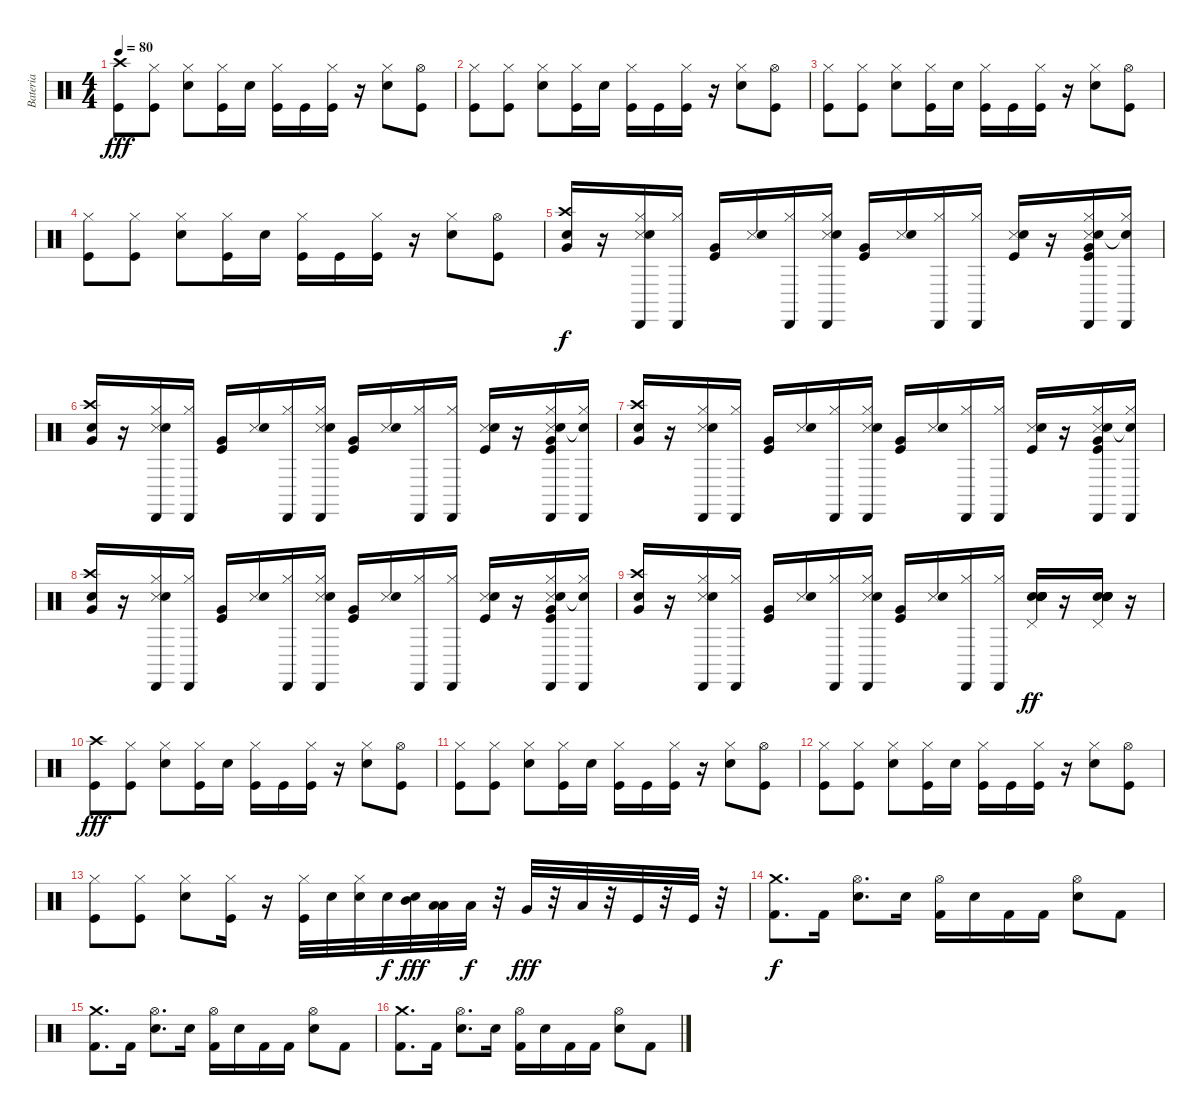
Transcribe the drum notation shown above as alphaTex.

\track ("Bateria" "Bateria") {instrument percussion}
\staff {score}
\articulation defaults
\ts (4 4)
\tempo 80
\clef neutral
\ks c
("Kick (hit)" "Crash high (hit)").8{dy fff} ("Kick (hit)" "Hi-Hat (closed)").8 ("Snare (hit) 2" "Hi-Hat (closed)").8 ("Kick (hit)" "Hi-Hat (closed)").16 "Snare (hit) 2".16 ("Kick (hit)" "Hi-Hat (closed)").16 "Kick (hit)".16 ("Kick (hit)" "Hi-Hat (closed)").16 r.16 ("Snare (hit) 2" "Hi-Hat (closed)").8 ("Kick (hit)" "Hi-Hat (open)").8 |
("Kick (hit)" "Hi-Hat (closed)").8 ("Kick (hit)" "Hi-Hat (closed)").8 ("Snare (hit) 2" "Hi-Hat (closed)").8 ("Kick (hit)" "Hi-Hat (closed)").16 "Snare (hit) 2".16 ("Kick (hit)" "Hi-Hat (closed)").16 "Kick (hit)".16 ("Kick (hit)" "Hi-Hat (closed)").16 r.16 ("Snare (hit) 2" "Hi-Hat (closed)").8 ("Kick (hit)" "Hi-Hat (open)").8 |
("Kick (hit)" "Hi-Hat (closed)").8 ("Kick (hit)" "Hi-Hat (closed)").8 ("Snare (hit) 2" "Hi-Hat (closed)").8 ("Kick (hit)" "Hi-Hat (closed)").16 "Snare (hit) 2".16 ("Kick (hit)" "Hi-Hat (closed)").16 "Kick (hit)".16 ("Kick (hit)" "Hi-Hat (closed)").16 r.16 ("Snare (hit) 2" "Hi-Hat (closed)").8 ("Kick (hit)" "Hi-Hat (open)").8 |
("Kick (hit)" "Hi-Hat (closed)").8 ("Kick (hit)" "Hi-Hat (closed)").8 ("Snare (hit) 2" "Hi-Hat (closed)").8 ("Kick (hit)" "Hi-Hat (closed)").16 "Snare (hit) 2".16 ("Kick (hit)" "Hi-Hat (closed)").16 "Kick (hit)".16 ("Kick (hit)" "Hi-Hat (closed)").16 r.16 ("Snare (hit) 2" "Hi-Hat (closed)").8 ("Kick (hit)" "Hi-Hat (open)").8 |
("Crash high (hit)" "Snare (hit) 2" "Very Low Tom (hit)").16{dy f} r.16 ("Snare (side stick) 3" "Electric Snare (hit)" "Hi-Hat (closed)" "Cabasa (hit)").16 ("Hi-Hat (closed)" "Cabasa (hit)").16 ("Kick (hit)" "Very Low Tom (hit)").16 ("Snare (side stick) 3" "Electric Snare (hit)").16 ("Hi-Hat (closed)" "Cabasa (hit)").16 ("Snare (side stick) 3" "Electric Snare (hit)" "Hi-Hat (closed)" "Cabasa (hit)").16 ("Kick (hit)" "Very Low Tom (hit)").16 ("Snare (side stick) 3" "Electric Snare (hit)").16 ("Hi-Hat (closed)" "Cabasa (hit)").16 ("Hi-Hat (closed)" "Cabasa (hit)").16 ("Kick (hit)" "Snare (side stick) 3" "Electric Snare (hit)").16 r.16 ("Snare (side stick) 3" "Kick (hit)" "Electric Snare (hit)" "Very Low Tom (hit)" "Hi-Hat (closed)" "Cabasa (hit)").16 ("Electric Snare (hit)"{t} "Hi-Hat (closed)" "Cabasa (hit)").16 |
("Crash high (hit)" "Snare (hit) 2" "Very Low Tom (hit)").16 r.16 ("Snare (side stick) 3" "Electric Snare (hit)" "Hi-Hat (closed)" "Cabasa (hit)").16 ("Hi-Hat (closed)" "Cabasa (hit)").16 ("Kick (hit)" "Very Low Tom (hit)").16 ("Snare (side stick) 3" "Electric Snare (hit)").16 ("Hi-Hat (closed)" "Cabasa (hit)").16 ("Snare (side stick) 3" "Electric Snare (hit)" "Hi-Hat (closed)" "Cabasa (hit)").16 ("Kick (hit)" "Very Low Tom (hit)").16 ("Snare (side stick) 3" "Electric Snare (hit)").16 ("Hi-Hat (closed)" "Cabasa (hit)").16 ("Hi-Hat (closed)" "Cabasa (hit)").16 ("Kick (hit)" "Snare (side stick) 3" "Electric Snare (hit)").16 r.16 ("Snare (side stick) 3" "Kick (hit)" "Electric Snare (hit)" "Very Low Tom (hit)" "Hi-Hat (closed)" "Cabasa (hit)").16 ("Electric Snare (hit)"{t} "Hi-Hat (closed)" "Cabasa (hit)").16 |
("Crash high (hit)" "Snare (hit) 2" "Very Low Tom (hit)").16 r.16 ("Snare (side stick) 3" "Electric Snare (hit)" "Hi-Hat (closed)" "Cabasa (hit)").16 ("Hi-Hat (closed)" "Cabasa (hit)").16 ("Kick (hit)" "Very Low Tom (hit)").16 ("Snare (side stick) 3" "Electric Snare (hit)").16 ("Hi-Hat (closed)" "Cabasa (hit)").16 ("Snare (side stick) 3" "Electric Snare (hit)" "Hi-Hat (closed)" "Cabasa (hit)").16 ("Kick (hit)" "Very Low Tom (hit)").16 ("Snare (side stick) 3" "Electric Snare (hit)").16 ("Hi-Hat (closed)" "Cabasa (hit)").16 ("Hi-Hat (closed)" "Cabasa (hit)").16 ("Kick (hit)" "Snare (side stick) 3" "Electric Snare (hit)").16 r.16 ("Snare (side stick) 3" "Kick (hit)" "Electric Snare (hit)" "Very Low Tom (hit)" "Hi-Hat (closed)" "Cabasa (hit)").16 ("Electric Snare (hit)"{t} "Hi-Hat (closed)" "Cabasa (hit)").16 |
("Crash high (hit)" "Snare (hit) 2" "Very Low Tom (hit)").16 r.16 ("Snare (side stick) 3" "Electric Snare (hit)" "Hi-Hat (closed)" "Cabasa (hit)").16 ("Hi-Hat (closed)" "Cabasa (hit)").16 ("Kick (hit)" "Very Low Tom (hit)").16 ("Snare (side stick) 3" "Electric Snare (hit)").16 ("Hi-Hat (closed)" "Cabasa (hit)").16 ("Snare (side stick) 3" "Electric Snare (hit)" "Hi-Hat (closed)" "Cabasa (hit)").16 ("Kick (hit)" "Very Low Tom (hit)").16 ("Snare (side stick) 3" "Electric Snare (hit)").16 ("Hi-Hat (closed)" "Cabasa (hit)").16 ("Hi-Hat (closed)" "Cabasa (hit)").16 ("Kick (hit)" "Snare (side stick) 3" "Electric Snare (hit)").16 r.16 ("Snare (side stick) 3" "Kick (hit)" "Electric Snare (hit)" "Very Low Tom (hit)" "Hi-Hat (closed)" "Cabasa (hit)").16 ("Electric Snare (hit)"{t} "Hi-Hat (closed)" "Cabasa (hit)").16 |
("Crash high (hit)" "Snare (hit) 2" "Very Low Tom (hit)").16 r.16 ("Snare (side stick) 3" "Electric Snare (hit)" "Hi-Hat (closed)" "Cabasa (hit)").16 ("Hi-Hat (closed)" "Cabasa (hit)").16 ("Kick (hit)" "Very Low Tom (hit)").16 ("Snare (side stick) 3" "Electric Snare (hit)").16 ("Hi-Hat (closed)" "Cabasa (hit)").16 ("Snare (side stick) 3" "Electric Snare (hit)" "Hi-Hat (closed)" "Cabasa (hit)").16 ("Kick (hit)" "Very Low Tom (hit)").16 ("Snare (side stick) 3" "Electric Snare (hit)").16 ("Hi-Hat (closed)" "Cabasa (hit)").16 ("Hi-Hat (closed)" "Cabasa (hit)").16 ("Pedal Hi-Hat (hit)" "Snare (hit) 2" "Snare (hit) 2" "Snare (hit) 2" "Snare (hit) 2" "Snare (hit) 2").16{dy ff} r.16 ("Pedal Hi-Hat (hit)" "Snare (hit) 2" "Snare (hit) 2" "Snare (hit) 2" "Snare (hit) 2" "Snare (hit) 2").16 r.16 |
("Kick (hit)" "Crash high (hit)").8{dy fff} ("Kick (hit)" "Hi-Hat (closed)").8 ("Snare (hit) 2" "Hi-Hat (closed)").8 ("Kick (hit)" "Hi-Hat (closed)").16 "Snare (hit) 2".16 ("Kick (hit)" "Hi-Hat (closed)").16 "Kick (hit)".16 ("Kick (hit)" "Hi-Hat (closed)").16 r.16 ("Snare (hit) 2" "Hi-Hat (closed)").8 ("Kick (hit)" "Hi-Hat (open)").8 |
("Kick (hit)" "Hi-Hat (closed)").8 ("Kick (hit)" "Hi-Hat (closed)").8 ("Snare (hit) 2" "Hi-Hat (closed)").8 ("Kick (hit)" "Hi-Hat (closed)").16 "Snare (hit) 2".16 ("Kick (hit)" "Hi-Hat (closed)").16 "Kick (hit)".16 ("Kick (hit)" "Hi-Hat (closed)").16 r.16 ("Snare (hit) 2" "Hi-Hat (closed)").8 ("Kick (hit)" "Hi-Hat (open)").8 |
("Kick (hit)" "Hi-Hat (closed)").8 ("Kick (hit)" "Hi-Hat (closed)").8 ("Snare (hit) 2" "Hi-Hat (closed)").8 ("Kick (hit)" "Hi-Hat (closed)").16 "Snare (hit) 2".16 ("Kick (hit)" "Hi-Hat (closed)").16 "Kick (hit)".16 ("Kick (hit)" "Hi-Hat (closed)").16 r.16 ("Snare (hit) 2" "Hi-Hat (closed)").8 ("Kick (hit)" "Hi-Hat (open)").8 |
("Kick (hit)" "Hi-Hat (closed)").8 ("Kick (hit)" "Hi-Hat (closed)").8 ("Snare (hit) 2" "Hi-Hat (closed)").8 ("Kick (hit)" "Hi-Hat (closed)").16 r.16 ("Kick (hit)" "Hi-Hat (closed)").32 "Snare (hit) 2".32 ("Snare (hit) 2" "Hi-Hat (closed)").32 "Snare (hit) 2".32{dy f} ("Snare (hit) 2" "Mid Tom (hit)").32{dy fff} ("Low Tom (hit)" "Low Tom (hit)").32 "Low Tom (hit)".32{dy f} r.32 "Very Low Tom (hit)".32{dy fff} r.32 "Low Floor Tom (hit)".32 r.32 "Kick (hit)".32 r.32 "Kick (hit)".32 r.32 |
("Crash medium (hit)" "Kick (hit) 2").8{d dy f} "Kick (hit) 2".16 ("Hi-Hat (open)" "Electric Snare (hit)").8{d} "Electric Snare (hit)".16 ("Hi-Hat (open)" "Kick (hit) 2").16 "Electric Snare (hit)".16 "Kick (hit) 2".16 "Kick (hit) 2".16 ("Hi-Hat (open)" "Electric Snare (hit)").8 "Kick (hit) 2".8 |
("Crash medium (hit)" "Kick (hit) 2").8{d} "Kick (hit) 2".16 ("Hi-Hat (open)" "Electric Snare (hit)").8{d} "Electric Snare (hit)".16 ("Hi-Hat (open)" "Kick (hit) 2").16 "Electric Snare (hit)".16 "Kick (hit) 2".16 "Kick (hit) 2".16 ("Hi-Hat (open)" "Electric Snare (hit)").8 "Kick (hit) 2".8 |
("Crash medium (hit)" "Kick (hit) 2").8{d} "Kick (hit) 2".16 ("Hi-Hat (open)" "Electric Snare (hit)").8{d} "Electric Snare (hit)".16 ("Hi-Hat (open)" "Kick (hit) 2").16 "Electric Snare (hit)".16 "Kick (hit) 2".16 "Kick (hit) 2".16 ("Hi-Hat (open)" "Electric Snare (hit)").8 "Kick (hit) 2".8
